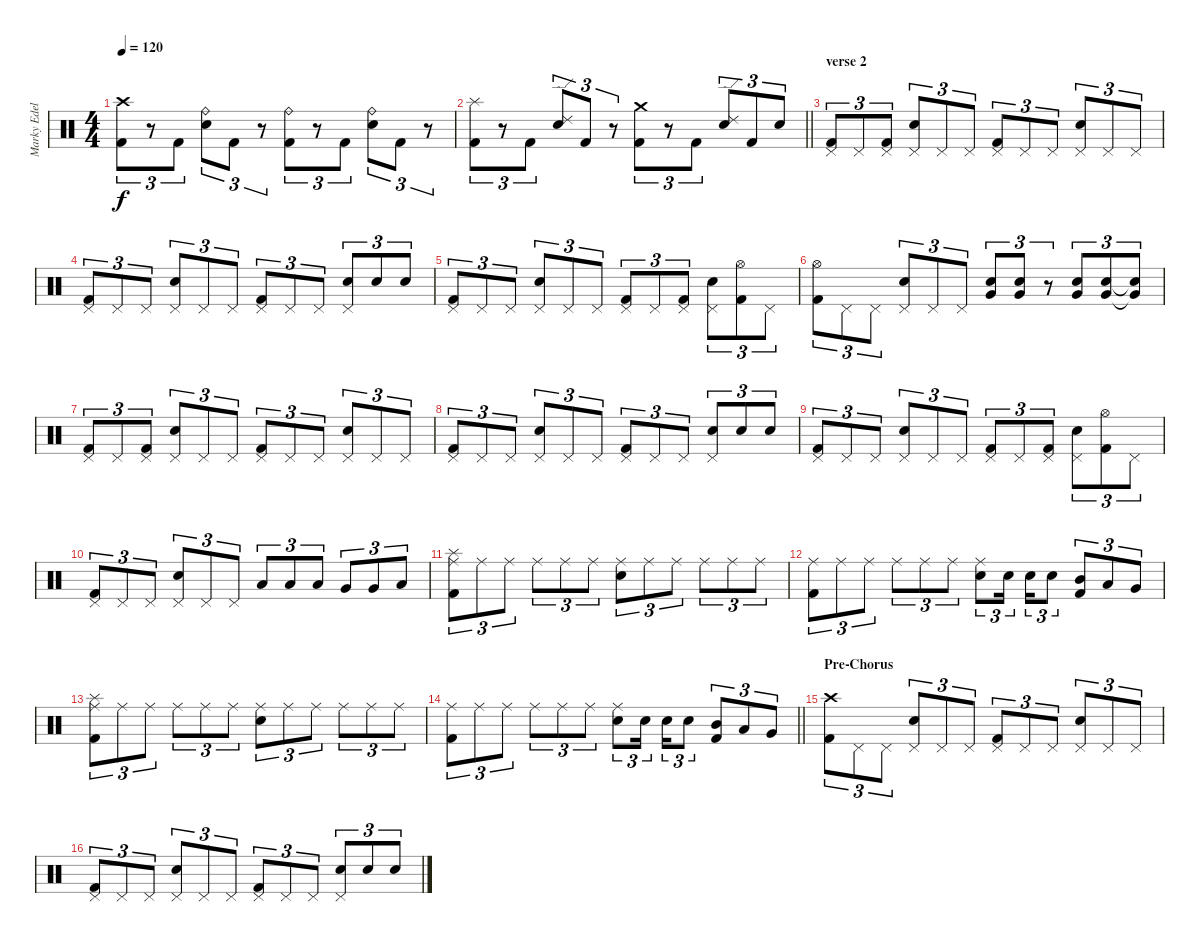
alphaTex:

\track ("Marky Edelmann" "Marky Edel") {instrument percussion}
\staff {score}
\articulation defaults
\ts (4 4)
\tempo 120
\clef neutral
\ks c
("Crash high (hit)" "Kick (hit) 2").8{tu (3 2) dy f} r.8{tu (3 2)} "Kick (hit) 2".8{tu (3 2)} ("Ride (bell)" "Snare (hit) 2").8{tu (3 2)} "Kick (hit) 2".8{tu (3 2)} r.8{tu (3 2)} ("Ride (bell)" "Kick (hit) 2").8{tu (3 2)} r.8{tu (3 2)} "Kick (hit) 2".8{tu (3 2)} ("Ride (bell)" "Snare (hit) 2").8{tu (3 2)} "Kick (hit) 2".8{tu (3 2)} r.8{tu (3 2)} |
\barLineRight lightlight
("Splash (hit)" "Kick (hit) 2").8{tu (3 2)} r.8{tu (3 2)} "Kick (hit) 2".8{tu (3 2)} ("Ride (edge) 2" "Snare (hit) 2").8{tu (3 2)} "Kick (hit) 2".8{tu (3 2)} r.8{tu (3 2)} ("Crash medium (hit)" "Kick (hit) 2").8{tu (3 2)} r.8{tu (3 2)} "Kick (hit) 2".8{tu (3 2)} ("Ride (edge) 2" "Snare (hit) 2").8{tu (3 2)} "Kick (hit) 2".8{tu (3 2)} "Snare (hit) 2".8{tu (3 2)} |
\section ("" "verse 2")
("Pedal Hi-Hat (hit)" "Kick (hit) 2").8{tu (3 2)} "Pedal Hi-Hat (hit)".8{tu (3 2)} ("Pedal Hi-Hat (hit)" "Kick (hit) 2").8{tu (3 2)} ("Pedal Hi-Hat (hit)" "Snare (hit) 2").8{tu (3 2)} "Pedal Hi-Hat (hit)".8{tu (3 2)} "Pedal Hi-Hat (hit)".8{tu (3 2)} ("Pedal Hi-Hat (hit)" "Kick (hit) 2").8{tu (3 2)} "Pedal Hi-Hat (hit)".8{tu (3 2)} "Pedal Hi-Hat (hit)".8{tu (3 2)} ("Pedal Hi-Hat (hit)" "Snare (hit) 2").8{tu (3 2)} "Pedal Hi-Hat (hit)".8{tu (3 2)} "Pedal Hi-Hat (hit)".8{tu (3 2)} |
("Pedal Hi-Hat (hit)" "Kick (hit) 2").8{tu (3 2)} "Pedal Hi-Hat (hit)".8{tu (3 2)} "Pedal Hi-Hat (hit)".8{tu (3 2)} ("Pedal Hi-Hat (hit)" "Snare (hit) 2").8{tu (3 2)} "Pedal Hi-Hat (hit)".8{tu (3 2)} "Pedal Hi-Hat (hit)".8{tu (3 2)} ("Pedal Hi-Hat (hit)" "Kick (hit) 2").8{tu (3 2)} "Pedal Hi-Hat (hit)".8{tu (3 2)} "Pedal Hi-Hat (hit)".8{tu (3 2)} ("Pedal Hi-Hat (hit)" "Snare (hit) 2").8{tu (3 2)} "Snare (hit) 2".8{tu (3 2)} "Snare (hit) 2".8{tu (3 2)} |
("Pedal Hi-Hat (hit)" "Kick (hit) 2").8{tu (3 2)} "Pedal Hi-Hat (hit)".8{tu (3 2)} "Pedal Hi-Hat (hit)".8{tu (3 2)} ("Pedal Hi-Hat (hit)" "Snare (hit) 2").8{tu (3 2)} "Pedal Hi-Hat (hit)".8{tu (3 2)} "Pedal Hi-Hat (hit)".8{tu (3 2)} ("Pedal Hi-Hat (hit)" "Kick (hit) 2").8{tu (3 2)} "Pedal Hi-Hat (hit)".8{tu (3 2)} ("Pedal Hi-Hat (hit)" "Kick (hit) 2").8{tu (3 2)} ("Pedal Hi-Hat (hit)" "Snare (hit) 2").8{tu (3 2)} ("Hi-Hat (open)" "Kick (hit) 2").8{tu (3 2)} "Pedal Hi-Hat (hit)".8{tu (3 2)} |
("Hi-Hat (open)" "Kick (hit) 2").8{tu (3 2)} "Pedal Hi-Hat (hit)".8{tu (3 2)} "Pedal Hi-Hat (hit)".8{tu (3 2)} ("Pedal Hi-Hat (hit)" "Snare (hit) 2").8{tu (3 2)} "Pedal Hi-Hat (hit)".8{tu (3 2)} "Pedal Hi-Hat (hit)".8{tu (3 2)} ("Very Low Tom (hit)" "Snare (hit) 2").8{tu (3 2)} ("Very Low Tom (hit)" "Snare (hit) 2").8{tu (3 2)} r.8{tu (3 2)} ("Very Low Tom (hit)" "Snare (hit) 2").8{tu (3 2)} ("Very Low Tom (hit)" "Snare (hit) 2").8{tu (3 2)} ("Very Low Tom (hit)"{t} "Snare (hit) 2"{t}).8{tu (3 2)} |
("Pedal Hi-Hat (hit)" "Kick (hit) 2").8{tu (3 2)} "Pedal Hi-Hat (hit)".8{tu (3 2)} ("Pedal Hi-Hat (hit)" "Kick (hit) 2").8{tu (3 2)} ("Pedal Hi-Hat (hit)" "Snare (hit) 2").8{tu (3 2)} "Pedal Hi-Hat (hit)".8{tu (3 2)} "Pedal Hi-Hat (hit)".8{tu (3 2)} ("Pedal Hi-Hat (hit)" "Kick (hit) 2").8{tu (3 2)} "Pedal Hi-Hat (hit)".8{tu (3 2)} "Pedal Hi-Hat (hit)".8{tu (3 2)} ("Pedal Hi-Hat (hit)" "Snare (hit) 2").8{tu (3 2)} "Pedal Hi-Hat (hit)".8{tu (3 2)} "Pedal Hi-Hat (hit)".8{tu (3 2)} |
("Pedal Hi-Hat (hit)" "Kick (hit) 2").8{tu (3 2)} "Pedal Hi-Hat (hit)".8{tu (3 2)} "Pedal Hi-Hat (hit)".8{tu (3 2)} ("Pedal Hi-Hat (hit)" "Snare (hit) 2").8{tu (3 2)} "Pedal Hi-Hat (hit)".8{tu (3 2)} "Pedal Hi-Hat (hit)".8{tu (3 2)} ("Pedal Hi-Hat (hit)" "Kick (hit) 2").8{tu (3 2)} "Pedal Hi-Hat (hit)".8{tu (3 2)} "Pedal Hi-Hat (hit)".8{tu (3 2)} ("Pedal Hi-Hat (hit)" "Snare (hit) 2").8{tu (3 2)} "Snare (hit) 2".8{tu (3 2)} "Snare (hit) 2".8{tu (3 2)} |
("Pedal Hi-Hat (hit)" "Kick (hit) 2").8{tu (3 2)} "Pedal Hi-Hat (hit)".8{tu (3 2)} "Pedal Hi-Hat (hit)".8{tu (3 2)} ("Pedal Hi-Hat (hit)" "Snare (hit) 2").8{tu (3 2)} "Pedal Hi-Hat (hit)".8{tu (3 2)} "Pedal Hi-Hat (hit)".8{tu (3 2)} ("Pedal Hi-Hat (hit)" "Kick (hit) 2").8{tu (3 2)} "Pedal Hi-Hat (hit)".8{tu (3 2)} ("Pedal Hi-Hat (hit)" "Kick (hit) 2").8{tu (3 2)} ("Pedal Hi-Hat (hit)" "Snare (hit) 2").8{tu (3 2)} ("Hi-Hat (open)" "Kick (hit) 2").8{tu (3 2)} "Pedal Hi-Hat (hit)".8{tu (3 2)} |
("Pedal Hi-Hat (hit)" "Kick (hit) 2").8{tu (3 2)} "Pedal Hi-Hat (hit)".8{tu (3 2)} "Pedal Hi-Hat (hit)".8{tu (3 2)} ("Pedal Hi-Hat (hit)" "Snare (hit) 2").8{tu (3 2)} "Pedal Hi-Hat (hit)".8{tu (3 2)} "Pedal Hi-Hat (hit)".8{tu (3 2)} "Low Tom (hit)".8{tu (3 2)} "Low Tom (hit)".8{tu (3 2)} "Low Tom (hit)".8{tu (3 2)} "Very Low Tom (hit)".8{tu (3 2)} "Very Low Tom (hit)".8{tu (3 2)} "Low Floor Tom (hit)".8{tu (3 2)} |
("Ride (middle)" "Splash (hit)" "Kick (hit) 2").8{tu (3 2)} "Ride (middle)".8{tu (3 2)} "Ride (middle)".8{tu (3 2)} "Ride (middle)".8{tu (3 2)} "Ride (middle)".8{tu (3 2)} "Ride (middle)".8{tu (3 2)} ("Ride (middle)" "Snare (hit) 2").8{tu (3 2)} "Ride (middle)".8{tu (3 2)} "Ride (middle)".8{tu (3 2)} "Ride (middle)".8{tu (3 2)} "Ride (middle)".8{tu (3 2)} "Ride (middle)".8{tu (3 2)} |
("Ride (middle)" "Kick (hit) 2").8{tu (3 2)} "Ride (middle)".8{tu (3 2)} "Ride (middle)".8{tu (3 2)} "Ride (middle)".8{tu (3 2)} "Ride (middle)".8{tu (3 2)} "Ride (middle)".8{tu (3 2)} ("Ride (middle)" "Snare (hit) 2").8{tu (3 2)} "Snare (hit) 2".16{tu (3 2) beam splitsecondary} "Snare (hit) 2".16{tu (3 2)} "Snare (hit) 2".8{tu (3 2)} ("Mid Tom (hit)" "Kick (hit) 2").8{tu (3 2)} "Low Tom (hit)".8{tu (3 2)} "Very Low Tom (hit)".8{tu (3 2)} |
("Ride (middle)" "Splash (hit)" "Kick (hit) 2").8{tu (3 2)} "Ride (middle)".8{tu (3 2)} "Ride (middle)".8{tu (3 2)} "Ride (middle)".8{tu (3 2)} "Ride (middle)".8{tu (3 2)} "Ride (middle)".8{tu (3 2)} ("Ride (middle)" "Snare (hit) 2").8{tu (3 2)} "Ride (middle)".8{tu (3 2)} "Ride (middle)".8{tu (3 2)} "Ride (middle)".8{tu (3 2)} "Ride (middle)".8{tu (3 2)} "Ride (middle)".8{tu (3 2)} |
\barLineRight lightlight
("Ride (middle)" "Kick (hit) 2").8{tu (3 2)} "Ride (middle)".8{tu (3 2)} "Ride (middle)".8{tu (3 2)} "Ride (middle)".8{tu (3 2)} "Ride (middle)".8{tu (3 2)} "Ride (middle)".8{tu (3 2)} ("Ride (middle)" "Snare (hit) 2").8{tu (3 2)} "Snare (hit) 2".16{tu (3 2) beam splitsecondary} "Snare (hit) 2".16{tu (3 2)} "Snare (hit) 2".8{tu (3 2)} ("Mid Tom (hit)" "Kick (hit) 2").8{tu (3 2)} "Low Tom (hit)".8{tu (3 2)} "Very Low Tom (hit)".8{tu (3 2)} |
\section ("" "Pre-Chorus")
("Crash high (hit)" "Kick (hit) 2").8{tu (3 2)} "Pedal Hi-Hat (hit)".8{tu (3 2)} "Pedal Hi-Hat (hit)".8{tu (3 2)} ("Pedal Hi-Hat (hit)" "Snare (hit) 2").8{tu (3 2)} "Pedal Hi-Hat (hit)".8{tu (3 2)} "Pedal Hi-Hat (hit)".8{tu (3 2)} ("Pedal Hi-Hat (hit)" "Kick (hit) 2").8{tu (3 2)} "Pedal Hi-Hat (hit)".8{tu (3 2)} "Pedal Hi-Hat (hit)".8{tu (3 2)} ("Pedal Hi-Hat (hit)" "Snare (hit) 2").8{tu (3 2)} "Pedal Hi-Hat (hit)".8{tu (3 2)} "Pedal Hi-Hat (hit)".8{tu (3 2)} |
("Pedal Hi-Hat (hit)" "Kick (hit) 2").8{tu (3 2)} "Pedal Hi-Hat (hit)".8{tu (3 2)} "Pedal Hi-Hat (hit)".8{tu (3 2)} ("Pedal Hi-Hat (hit)" "Snare (hit) 2").8{tu (3 2)} "Pedal Hi-Hat (hit)".8{tu (3 2)} "Pedal Hi-Hat (hit)".8{tu (3 2)} ("Pedal Hi-Hat (hit)" "Kick (hit) 2").8{tu (3 2)} "Pedal Hi-Hat (hit)".8{tu (3 2)} "Pedal Hi-Hat (hit)".8{tu (3 2)} ("Pedal Hi-Hat (hit)" "Snare (hit) 2").8{tu (3 2)} "Snare (hit) 2".8{tu (3 2)} "Snare (hit) 2".8{tu (3 2)}
